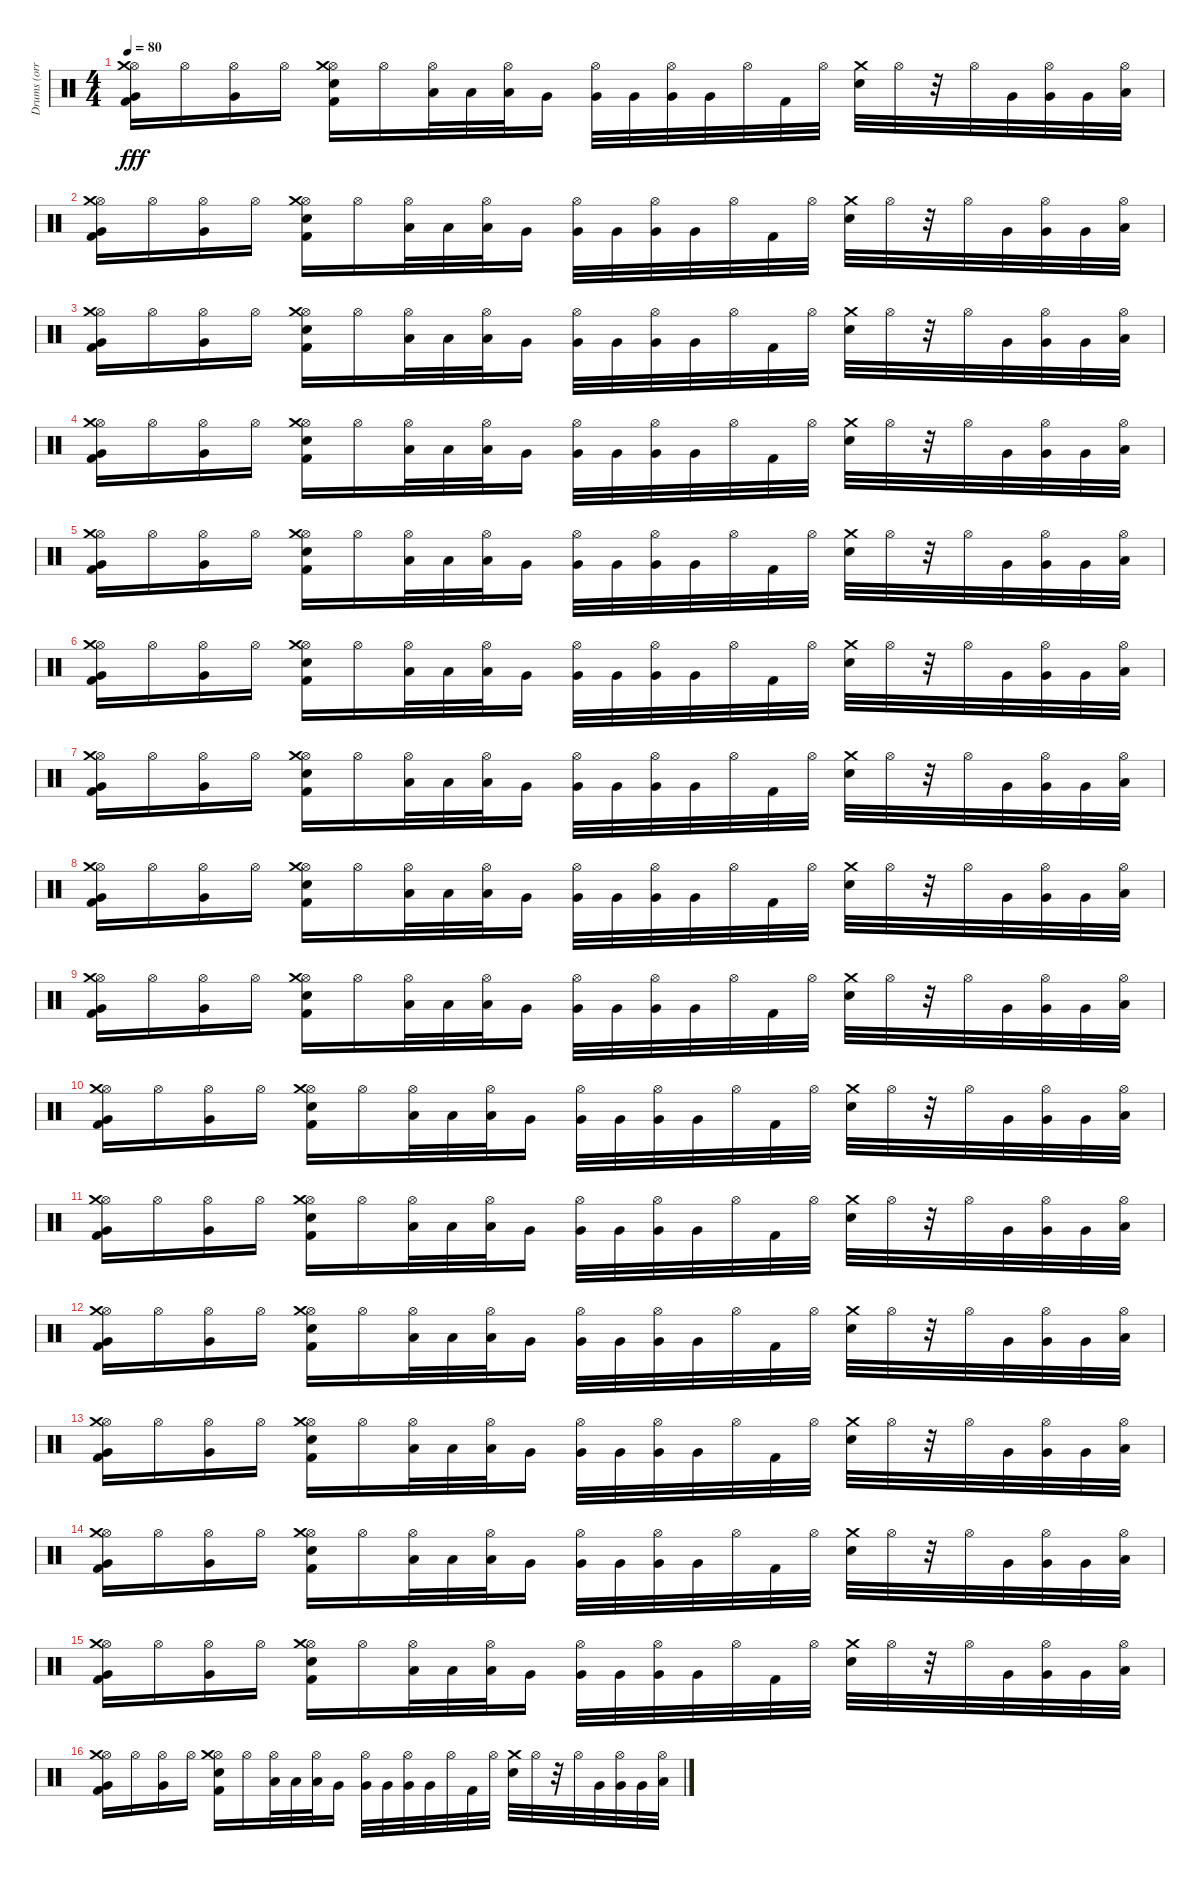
\track ("Drums (orri páll dırason)" "Drums (orr") {instrument percussion}
\staff {score}
\articulation defaults
\ts (4 4)
\tempo 80
\clef neutral
\ks c
("Kick (hit) 2" "Hi-Hat (open)" "Crash medium (hit)" "Very Low Tom (hit)").16{dy fff} "Hi-Hat (open)".16 ("Hi-Hat (open)" "Very Low Tom (hit)").16 "Hi-Hat (open)".16 ("Kick (hit) 2" "Hi-Hat (open)" "Crash medium (hit)" "Electric Snare (hit)").16 "Hi-Hat (open)".16 ("Hi-Hat (open)" "Low Floor Tom (hit)").32 "Low Floor Tom (hit)".32 ("Hi-Hat (open)" "Low Floor Tom (hit)").32 "Very Low Tom (hit)".16 ("Hi-Hat (open)" "Very Low Tom (hit)").32 "Very Low Tom (hit)".32 ("Hi-Hat (open)" "Very Low Tom (hit)").32 "Very Low Tom (hit)".32 "Hi-Hat (open)".32 "Kick (hit) 2".32 "Hi-Hat (open)".32 ("Crash medium (hit)" "Electric Snare (hit)").32 "Hi-Hat (open)".32 r.32 "Hi-Hat (open)".32 "Very Low Tom (hit)".32 ("Hi-Hat (open)" "Very Low Tom (hit)").32 "Very Low Tom (hit)".32 ("Hi-Hat (open)" "Low Floor Tom (hit)").32 |
("Kick (hit) 2" "Hi-Hat (open)" "Crash medium (hit)" "Very Low Tom (hit)").16 "Hi-Hat (open)".16 ("Hi-Hat (open)" "Very Low Tom (hit)").16 "Hi-Hat (open)".16 ("Kick (hit) 2" "Hi-Hat (open)" "Crash medium (hit)" "Electric Snare (hit)").16 "Hi-Hat (open)".16 ("Hi-Hat (open)" "Low Floor Tom (hit)").32 "Low Floor Tom (hit)".32 ("Hi-Hat (open)" "Low Floor Tom (hit)").32 "Very Low Tom (hit)".16 ("Hi-Hat (open)" "Very Low Tom (hit)").32 "Very Low Tom (hit)".32 ("Hi-Hat (open)" "Very Low Tom (hit)").32 "Very Low Tom (hit)".32 "Hi-Hat (open)".32 "Kick (hit) 2".32 "Hi-Hat (open)".32 ("Crash medium (hit)" "Electric Snare (hit)").32 "Hi-Hat (open)".32 r.32 "Hi-Hat (open)".32 "Very Low Tom (hit)".32 ("Hi-Hat (open)" "Very Low Tom (hit)").32 "Very Low Tom (hit)".32 ("Hi-Hat (open)" "Low Floor Tom (hit)").32 |
("Kick (hit) 2" "Hi-Hat (open)" "Crash medium (hit)" "Very Low Tom (hit)").16 "Hi-Hat (open)".16 ("Hi-Hat (open)" "Very Low Tom (hit)").16 "Hi-Hat (open)".16 ("Kick (hit) 2" "Hi-Hat (open)" "Crash medium (hit)" "Electric Snare (hit)").16 "Hi-Hat (open)".16 ("Hi-Hat (open)" "Low Floor Tom (hit)").32 "Low Floor Tom (hit)".32 ("Hi-Hat (open)" "Low Floor Tom (hit)").32 "Very Low Tom (hit)".16 ("Hi-Hat (open)" "Very Low Tom (hit)").32 "Very Low Tom (hit)".32 ("Hi-Hat (open)" "Very Low Tom (hit)").32 "Very Low Tom (hit)".32 "Hi-Hat (open)".32 "Kick (hit) 2".32 "Hi-Hat (open)".32 ("Crash medium (hit)" "Electric Snare (hit)").32 "Hi-Hat (open)".32 r.32 "Hi-Hat (open)".32 "Very Low Tom (hit)".32 ("Hi-Hat (open)" "Very Low Tom (hit)").32 "Very Low Tom (hit)".32 ("Hi-Hat (open)" "Low Floor Tom (hit)").32 |
("Kick (hit) 2" "Hi-Hat (open)" "Crash medium (hit)" "Very Low Tom (hit)").16 "Hi-Hat (open)".16 ("Hi-Hat (open)" "Very Low Tom (hit)").16 "Hi-Hat (open)".16 ("Kick (hit) 2" "Hi-Hat (open)" "Crash medium (hit)" "Electric Snare (hit)").16 "Hi-Hat (open)".16 ("Hi-Hat (open)" "Low Floor Tom (hit)").32 "Low Floor Tom (hit)".32 ("Hi-Hat (open)" "Low Floor Tom (hit)").32 "Very Low Tom (hit)".16 ("Hi-Hat (open)" "Very Low Tom (hit)").32 "Very Low Tom (hit)".32 ("Hi-Hat (open)" "Very Low Tom (hit)").32 "Very Low Tom (hit)".32 "Hi-Hat (open)".32 "Kick (hit) 2".32 "Hi-Hat (open)".32 ("Crash medium (hit)" "Electric Snare (hit)").32 "Hi-Hat (open)".32 r.32 "Hi-Hat (open)".32 "Very Low Tom (hit)".32 ("Hi-Hat (open)" "Very Low Tom (hit)").32 "Very Low Tom (hit)".32 ("Hi-Hat (open)" "Low Floor Tom (hit)").32 |
("Kick (hit) 2" "Hi-Hat (open)" "Crash medium (hit)" "Very Low Tom (hit)").16 "Hi-Hat (open)".16 ("Hi-Hat (open)" "Very Low Tom (hit)").16 "Hi-Hat (open)".16 ("Kick (hit) 2" "Hi-Hat (open)" "Crash medium (hit)" "Electric Snare (hit)").16 "Hi-Hat (open)".16 ("Hi-Hat (open)" "Low Floor Tom (hit)").32 "Low Floor Tom (hit)".32 ("Hi-Hat (open)" "Low Floor Tom (hit)").32 "Very Low Tom (hit)".16 ("Hi-Hat (open)" "Very Low Tom (hit)").32 "Very Low Tom (hit)".32 ("Hi-Hat (open)" "Very Low Tom (hit)").32 "Very Low Tom (hit)".32 "Hi-Hat (open)".32 "Kick (hit) 2".32 "Hi-Hat (open)".32 ("Crash medium (hit)" "Electric Snare (hit)").32 "Hi-Hat (open)".32 r.32 "Hi-Hat (open)".32 "Very Low Tom (hit)".32 ("Hi-Hat (open)" "Very Low Tom (hit)").32 "Very Low Tom (hit)".32 ("Hi-Hat (open)" "Low Floor Tom (hit)").32 |
("Kick (hit) 2" "Hi-Hat (open)" "Crash medium (hit)" "Very Low Tom (hit)").16 "Hi-Hat (open)".16 ("Hi-Hat (open)" "Very Low Tom (hit)").16 "Hi-Hat (open)".16 ("Kick (hit) 2" "Hi-Hat (open)" "Crash medium (hit)" "Electric Snare (hit)").16 "Hi-Hat (open)".16 ("Hi-Hat (open)" "Low Floor Tom (hit)").32 "Low Floor Tom (hit)".32 ("Hi-Hat (open)" "Low Floor Tom (hit)").32 "Very Low Tom (hit)".16 ("Hi-Hat (open)" "Very Low Tom (hit)").32 "Very Low Tom (hit)".32 ("Hi-Hat (open)" "Very Low Tom (hit)").32 "Very Low Tom (hit)".32 "Hi-Hat (open)".32 "Kick (hit) 2".32 "Hi-Hat (open)".32 ("Crash medium (hit)" "Electric Snare (hit)").32 "Hi-Hat (open)".32 r.32 "Hi-Hat (open)".32 "Very Low Tom (hit)".32 ("Hi-Hat (open)" "Very Low Tom (hit)").32 "Very Low Tom (hit)".32 ("Hi-Hat (open)" "Low Floor Tom (hit)").32 |
("Kick (hit) 2" "Hi-Hat (open)" "Crash medium (hit)" "Very Low Tom (hit)").16 "Hi-Hat (open)".16 ("Hi-Hat (open)" "Very Low Tom (hit)").16 "Hi-Hat (open)".16 ("Kick (hit) 2" "Hi-Hat (open)" "Crash medium (hit)" "Electric Snare (hit)").16 "Hi-Hat (open)".16 ("Hi-Hat (open)" "Low Floor Tom (hit)").32 "Low Floor Tom (hit)".32 ("Hi-Hat (open)" "Low Floor Tom (hit)").32 "Very Low Tom (hit)".16 ("Hi-Hat (open)" "Very Low Tom (hit)").32 "Very Low Tom (hit)".32 ("Hi-Hat (open)" "Very Low Tom (hit)").32 "Very Low Tom (hit)".32 "Hi-Hat (open)".32 "Kick (hit) 2".32 "Hi-Hat (open)".32 ("Crash medium (hit)" "Electric Snare (hit)").32 "Hi-Hat (open)".32 r.32 "Hi-Hat (open)".32 "Very Low Tom (hit)".32 ("Hi-Hat (open)" "Very Low Tom (hit)").32 "Very Low Tom (hit)".32 ("Hi-Hat (open)" "Low Floor Tom (hit)").32 |
("Kick (hit) 2" "Hi-Hat (open)" "Crash medium (hit)" "Very Low Tom (hit)").16 "Hi-Hat (open)".16 ("Hi-Hat (open)" "Very Low Tom (hit)").16 "Hi-Hat (open)".16 ("Kick (hit) 2" "Hi-Hat (open)" "Crash medium (hit)" "Electric Snare (hit)").16 "Hi-Hat (open)".16 ("Hi-Hat (open)" "Low Floor Tom (hit)").32 "Low Floor Tom (hit)".32 ("Hi-Hat (open)" "Low Floor Tom (hit)").32 "Very Low Tom (hit)".16 ("Hi-Hat (open)" "Very Low Tom (hit)").32 "Very Low Tom (hit)".32 ("Hi-Hat (open)" "Very Low Tom (hit)").32 "Very Low Tom (hit)".32 "Hi-Hat (open)".32 "Kick (hit) 2".32 "Hi-Hat (open)".32 ("Crash medium (hit)" "Electric Snare (hit)").32 "Hi-Hat (open)".32 r.32 "Hi-Hat (open)".32 "Very Low Tom (hit)".32 ("Hi-Hat (open)" "Very Low Tom (hit)").32 "Very Low Tom (hit)".32 ("Hi-Hat (open)" "Low Floor Tom (hit)").32 |
("Kick (hit) 2" "Hi-Hat (open)" "Crash medium (hit)" "Very Low Tom (hit)").16 "Hi-Hat (open)".16 ("Hi-Hat (open)" "Very Low Tom (hit)").16 "Hi-Hat (open)".16 ("Kick (hit) 2" "Hi-Hat (open)" "Crash medium (hit)" "Electric Snare (hit)").16 "Hi-Hat (open)".16 ("Hi-Hat (open)" "Low Floor Tom (hit)").32 "Low Floor Tom (hit)".32 ("Hi-Hat (open)" "Low Floor Tom (hit)").32 "Very Low Tom (hit)".16 ("Hi-Hat (open)" "Very Low Tom (hit)").32 "Very Low Tom (hit)".32 ("Hi-Hat (open)" "Very Low Tom (hit)").32 "Very Low Tom (hit)".32 "Hi-Hat (open)".32 "Kick (hit) 2".32 "Hi-Hat (open)".32 ("Crash medium (hit)" "Electric Snare (hit)").32 "Hi-Hat (open)".32 r.32 "Hi-Hat (open)".32 "Very Low Tom (hit)".32 ("Hi-Hat (open)" "Very Low Tom (hit)").32 "Very Low Tom (hit)".32 ("Hi-Hat (open)" "Low Floor Tom (hit)").32 |
("Kick (hit) 2" "Hi-Hat (open)" "Crash medium (hit)" "Very Low Tom (hit)").16 "Hi-Hat (open)".16 ("Hi-Hat (open)" "Very Low Tom (hit)").16 "Hi-Hat (open)".16 ("Kick (hit) 2" "Hi-Hat (open)" "Crash medium (hit)" "Electric Snare (hit)").16 "Hi-Hat (open)".16 ("Hi-Hat (open)" "Low Floor Tom (hit)").32 "Low Floor Tom (hit)".32 ("Hi-Hat (open)" "Low Floor Tom (hit)").32 "Very Low Tom (hit)".16 ("Hi-Hat (open)" "Very Low Tom (hit)").32 "Very Low Tom (hit)".32 ("Hi-Hat (open)" "Very Low Tom (hit)").32 "Very Low Tom (hit)".32 "Hi-Hat (open)".32 "Kick (hit) 2".32 "Hi-Hat (open)".32 ("Crash medium (hit)" "Electric Snare (hit)").32 "Hi-Hat (open)".32 r.32 "Hi-Hat (open)".32 "Very Low Tom (hit)".32 ("Hi-Hat (open)" "Very Low Tom (hit)").32 "Very Low Tom (hit)".32 ("Hi-Hat (open)" "Low Floor Tom (hit)").32 |
("Kick (hit) 2" "Hi-Hat (open)" "Crash medium (hit)" "Very Low Tom (hit)").16 "Hi-Hat (open)".16 ("Hi-Hat (open)" "Very Low Tom (hit)").16 "Hi-Hat (open)".16 ("Kick (hit) 2" "Hi-Hat (open)" "Crash medium (hit)" "Electric Snare (hit)").16 "Hi-Hat (open)".16 ("Hi-Hat (open)" "Low Floor Tom (hit)").32 "Low Floor Tom (hit)".32 ("Hi-Hat (open)" "Low Floor Tom (hit)").32 "Very Low Tom (hit)".16 ("Hi-Hat (open)" "Very Low Tom (hit)").32 "Very Low Tom (hit)".32 ("Hi-Hat (open)" "Very Low Tom (hit)").32 "Very Low Tom (hit)".32 "Hi-Hat (open)".32 "Kick (hit) 2".32 "Hi-Hat (open)".32 ("Crash medium (hit)" "Electric Snare (hit)").32 "Hi-Hat (open)".32 r.32 "Hi-Hat (open)".32 "Very Low Tom (hit)".32 ("Hi-Hat (open)" "Very Low Tom (hit)").32 "Very Low Tom (hit)".32 ("Hi-Hat (open)" "Low Floor Tom (hit)").32 |
("Kick (hit) 2" "Hi-Hat (open)" "Crash medium (hit)" "Very Low Tom (hit)").16 "Hi-Hat (open)".16 ("Hi-Hat (open)" "Very Low Tom (hit)").16 "Hi-Hat (open)".16 ("Kick (hit) 2" "Hi-Hat (open)" "Crash medium (hit)" "Electric Snare (hit)").16 "Hi-Hat (open)".16 ("Hi-Hat (open)" "Low Floor Tom (hit)").32 "Low Floor Tom (hit)".32 ("Hi-Hat (open)" "Low Floor Tom (hit)").32 "Very Low Tom (hit)".16 ("Hi-Hat (open)" "Very Low Tom (hit)").32 "Very Low Tom (hit)".32 ("Hi-Hat (open)" "Very Low Tom (hit)").32 "Very Low Tom (hit)".32 "Hi-Hat (open)".32 "Kick (hit) 2".32 "Hi-Hat (open)".32 ("Crash medium (hit)" "Electric Snare (hit)").32 "Hi-Hat (open)".32 r.32 "Hi-Hat (open)".32 "Very Low Tom (hit)".32 ("Hi-Hat (open)" "Very Low Tom (hit)").32 "Very Low Tom (hit)".32 ("Hi-Hat (open)" "Low Floor Tom (hit)").32 |
("Kick (hit) 2" "Hi-Hat (open)" "Crash medium (hit)" "Very Low Tom (hit)").16 "Hi-Hat (open)".16 ("Hi-Hat (open)" "Very Low Tom (hit)").16 "Hi-Hat (open)".16 ("Kick (hit) 2" "Hi-Hat (open)" "Crash medium (hit)" "Electric Snare (hit)").16 "Hi-Hat (open)".16 ("Hi-Hat (open)" "Low Floor Tom (hit)").32 "Low Floor Tom (hit)".32 ("Hi-Hat (open)" "Low Floor Tom (hit)").32 "Very Low Tom (hit)".16 ("Hi-Hat (open)" "Very Low Tom (hit)").32 "Very Low Tom (hit)".32 ("Hi-Hat (open)" "Very Low Tom (hit)").32 "Very Low Tom (hit)".32 "Hi-Hat (open)".32 "Kick (hit) 2".32 "Hi-Hat (open)".32 ("Crash medium (hit)" "Electric Snare (hit)").32 "Hi-Hat (open)".32 r.32 "Hi-Hat (open)".32 "Very Low Tom (hit)".32 ("Hi-Hat (open)" "Very Low Tom (hit)").32 "Very Low Tom (hit)".32 ("Hi-Hat (open)" "Low Floor Tom (hit)").32 |
("Kick (hit) 2" "Hi-Hat (open)" "Crash medium (hit)" "Very Low Tom (hit)").16 "Hi-Hat (open)".16 ("Hi-Hat (open)" "Very Low Tom (hit)").16 "Hi-Hat (open)".16 ("Kick (hit) 2" "Hi-Hat (open)" "Crash medium (hit)" "Electric Snare (hit)").16 "Hi-Hat (open)".16 ("Hi-Hat (open)" "Low Floor Tom (hit)").32 "Low Floor Tom (hit)".32 ("Hi-Hat (open)" "Low Floor Tom (hit)").32 "Very Low Tom (hit)".16 ("Hi-Hat (open)" "Very Low Tom (hit)").32 "Very Low Tom (hit)".32 ("Hi-Hat (open)" "Very Low Tom (hit)").32 "Very Low Tom (hit)".32 "Hi-Hat (open)".32 "Kick (hit) 2".32 "Hi-Hat (open)".32 ("Crash medium (hit)" "Electric Snare (hit)").32 "Hi-Hat (open)".32 r.32 "Hi-Hat (open)".32 "Very Low Tom (hit)".32 ("Hi-Hat (open)" "Very Low Tom (hit)").32 "Very Low Tom (hit)".32 ("Hi-Hat (open)" "Low Floor Tom (hit)").32 |
("Kick (hit) 2" "Hi-Hat (open)" "Crash medium (hit)" "Very Low Tom (hit)").16 "Hi-Hat (open)".16 ("Hi-Hat (open)" "Very Low Tom (hit)").16 "Hi-Hat (open)".16 ("Kick (hit) 2" "Hi-Hat (open)" "Crash medium (hit)" "Electric Snare (hit)").16 "Hi-Hat (open)".16 ("Hi-Hat (open)" "Low Floor Tom (hit)").32 "Low Floor Tom (hit)".32 ("Hi-Hat (open)" "Low Floor Tom (hit)").32 "Very Low Tom (hit)".16 ("Hi-Hat (open)" "Very Low Tom (hit)").32 "Very Low Tom (hit)".32 ("Hi-Hat (open)" "Very Low Tom (hit)").32 "Very Low Tom (hit)".32 "Hi-Hat (open)".32 "Kick (hit) 2".32 "Hi-Hat (open)".32 ("Crash medium (hit)" "Electric Snare (hit)").32 "Hi-Hat (open)".32 r.32 "Hi-Hat (open)".32 "Very Low Tom (hit)".32 ("Hi-Hat (open)" "Very Low Tom (hit)").32 "Very Low Tom (hit)".32 ("Hi-Hat (open)" "Low Floor Tom (hit)").32 |
("Kick (hit) 2" "Hi-Hat (open)" "Crash medium (hit)" "Very Low Tom (hit)").16 "Hi-Hat (open)".16 ("Hi-Hat (open)" "Very Low Tom (hit)").16 "Hi-Hat (open)".16 ("Kick (hit) 2" "Hi-Hat (open)" "Crash medium (hit)" "Electric Snare (hit)").16 "Hi-Hat (open)".16 ("Hi-Hat (open)" "Low Floor Tom (hit)").32 "Low Floor Tom (hit)".32 ("Hi-Hat (open)" "Low Floor Tom (hit)").32 "Very Low Tom (hit)".16 ("Hi-Hat (open)" "Very Low Tom (hit)").32 "Very Low Tom (hit)".32 ("Hi-Hat (open)" "Very Low Tom (hit)").32 "Very Low Tom (hit)".32 "Hi-Hat (open)".32 "Kick (hit) 2".32 "Hi-Hat (open)".32 ("Crash medium (hit)" "Electric Snare (hit)").32 "Hi-Hat (open)".32 r.32 "Hi-Hat (open)".32 "Very Low Tom (hit)".32 ("Hi-Hat (open)" "Very Low Tom (hit)").32 "Very Low Tom (hit)".32 ("Hi-Hat (open)" "Low Floor Tom (hit)").32
